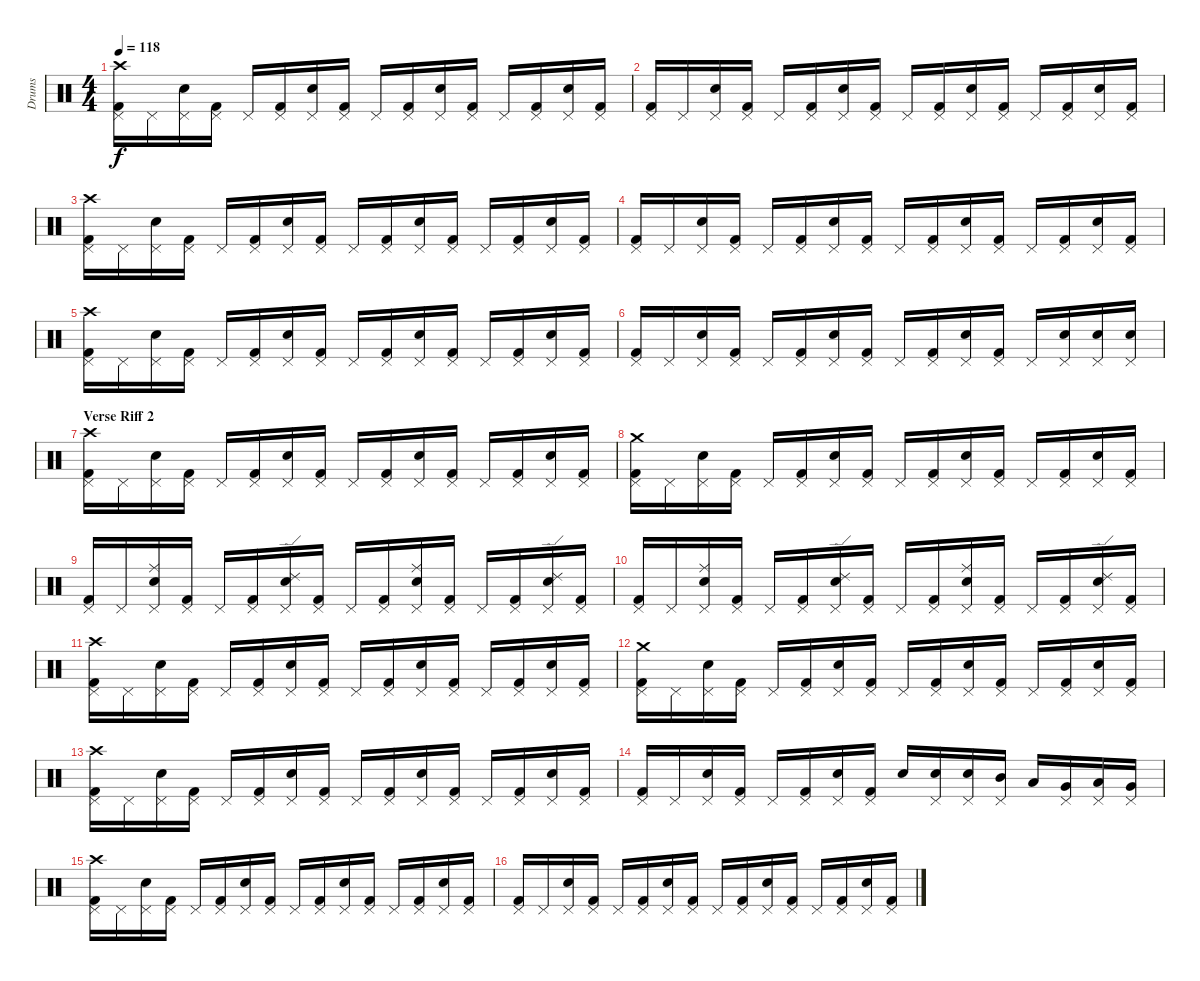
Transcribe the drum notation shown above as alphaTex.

\track ("Drums" "Drums") {instrument percussion}
\staff {score}
\articulation defaults
\ts (4 4)
\tempo 118
\clef neutral
\ks c
("Kick (hit) 2" "Pedal Hi-Hat (hit)" "Crash high (hit)").16{dy f} "Pedal Hi-Hat (hit)".16 ("Snare (hit) 2" "Pedal Hi-Hat (hit)").16 ("Kick (hit) 2" "Pedal Hi-Hat (hit)").16 "Pedal Hi-Hat (hit)".16 ("Kick (hit) 2" "Pedal Hi-Hat (hit)").16 ("Snare (hit) 2" "Pedal Hi-Hat (hit)").16 ("Kick (hit) 2" "Pedal Hi-Hat (hit)").16 "Pedal Hi-Hat (hit)".16 ("Kick (hit) 2" "Pedal Hi-Hat (hit)").16 ("Snare (hit) 2" "Pedal Hi-Hat (hit)").16 ("Kick (hit) 2" "Pedal Hi-Hat (hit)").16 "Pedal Hi-Hat (hit)".16 ("Kick (hit) 2" "Pedal Hi-Hat (hit)").16 ("Snare (hit) 2" "Pedal Hi-Hat (hit)").16 ("Kick (hit) 2" "Pedal Hi-Hat (hit)").16 |
("Kick (hit) 2" "Pedal Hi-Hat (hit)").16 "Pedal Hi-Hat (hit)".16 ("Snare (hit) 2" "Pedal Hi-Hat (hit)").16 ("Kick (hit) 2" "Pedal Hi-Hat (hit)").16 "Pedal Hi-Hat (hit)".16 ("Kick (hit) 2" "Pedal Hi-Hat (hit)").16 ("Snare (hit) 2" "Pedal Hi-Hat (hit)").16 ("Kick (hit) 2" "Pedal Hi-Hat (hit)").16 "Pedal Hi-Hat (hit)".16 ("Kick (hit) 2" "Pedal Hi-Hat (hit)").16 ("Snare (hit) 2" "Pedal Hi-Hat (hit)").16 ("Kick (hit) 2" "Pedal Hi-Hat (hit)").16 "Pedal Hi-Hat (hit)".16 ("Kick (hit) 2" "Pedal Hi-Hat (hit)").16 ("Snare (hit) 2" "Pedal Hi-Hat (hit)").16 ("Kick (hit) 2" "Pedal Hi-Hat (hit)").16 |
("Kick (hit) 2" "Pedal Hi-Hat (hit)" "Crash high (hit)").16 "Pedal Hi-Hat (hit)".16 ("Snare (hit) 2" "Pedal Hi-Hat (hit)").16 ("Kick (hit) 2" "Pedal Hi-Hat (hit)").16 "Pedal Hi-Hat (hit)".16 ("Kick (hit) 2" "Pedal Hi-Hat (hit)").16 ("Snare (hit) 2" "Pedal Hi-Hat (hit)").16 ("Kick (hit) 2" "Pedal Hi-Hat (hit)").16 "Pedal Hi-Hat (hit)".16 ("Kick (hit) 2" "Pedal Hi-Hat (hit)").16 ("Snare (hit) 2" "Pedal Hi-Hat (hit)").16 ("Kick (hit) 2" "Pedal Hi-Hat (hit)").16 "Pedal Hi-Hat (hit)".16 ("Kick (hit) 2" "Pedal Hi-Hat (hit)").16 ("Snare (hit) 2" "Pedal Hi-Hat (hit)").16 ("Kick (hit) 2" "Pedal Hi-Hat (hit)").16 |
("Kick (hit) 2" "Pedal Hi-Hat (hit)").16 "Pedal Hi-Hat (hit)".16 ("Snare (hit) 2" "Pedal Hi-Hat (hit)").16 ("Kick (hit) 2" "Pedal Hi-Hat (hit)").16 "Pedal Hi-Hat (hit)".16 ("Kick (hit) 2" "Pedal Hi-Hat (hit)").16 ("Snare (hit) 2" "Pedal Hi-Hat (hit)").16 ("Kick (hit) 2" "Pedal Hi-Hat (hit)").16 "Pedal Hi-Hat (hit)".16 ("Kick (hit) 2" "Pedal Hi-Hat (hit)").16 ("Snare (hit) 2" "Pedal Hi-Hat (hit)").16 ("Kick (hit) 2" "Pedal Hi-Hat (hit)").16 "Pedal Hi-Hat (hit)".16 ("Kick (hit) 2" "Pedal Hi-Hat (hit)").16 ("Snare (hit) 2" "Pedal Hi-Hat (hit)").16 ("Kick (hit) 2" "Pedal Hi-Hat (hit)").16 |
("Kick (hit) 2" "Pedal Hi-Hat (hit)" "Crash high (hit)").16 "Pedal Hi-Hat (hit)".16 ("Snare (hit) 2" "Pedal Hi-Hat (hit)").16 ("Kick (hit) 2" "Pedal Hi-Hat (hit)").16 "Pedal Hi-Hat (hit)".16 ("Kick (hit) 2" "Pedal Hi-Hat (hit)").16 ("Snare (hit) 2" "Pedal Hi-Hat (hit)").16 ("Kick (hit) 2" "Pedal Hi-Hat (hit)").16 "Pedal Hi-Hat (hit)".16 ("Kick (hit) 2" "Pedal Hi-Hat (hit)").16 ("Snare (hit) 2" "Pedal Hi-Hat (hit)").16 ("Kick (hit) 2" "Pedal Hi-Hat (hit)").16 "Pedal Hi-Hat (hit)".16 ("Kick (hit) 2" "Pedal Hi-Hat (hit)").16 ("Snare (hit) 2" "Pedal Hi-Hat (hit)").16 ("Kick (hit) 2" "Pedal Hi-Hat (hit)").16 |
("Kick (hit) 2" "Pedal Hi-Hat (hit)").16 "Pedal Hi-Hat (hit)".16 ("Snare (hit) 2" "Pedal Hi-Hat (hit)").16 ("Kick (hit) 2" "Pedal Hi-Hat (hit)").16 "Pedal Hi-Hat (hit)".16 ("Kick (hit) 2" "Pedal Hi-Hat (hit)").16 ("Snare (hit) 2" "Pedal Hi-Hat (hit)").16 ("Kick (hit) 2" "Pedal Hi-Hat (hit)").16 "Pedal Hi-Hat (hit)".16 ("Kick (hit) 2" "Pedal Hi-Hat (hit)").16 ("Snare (hit) 2" "Pedal Hi-Hat (hit)").16 ("Kick (hit) 2" "Pedal Hi-Hat (hit)").16 "Pedal Hi-Hat (hit)".16 ("Snare (hit) 2" "Pedal Hi-Hat (hit)").16 ("Snare (hit) 2" "Pedal Hi-Hat (hit)").16 ("Snare (hit) 2" "Pedal Hi-Hat (hit)").16 |
\section ("" "Verse Riff 2")
("Kick (hit) 2" "Pedal Hi-Hat (hit)" "Crash high (hit)").16 "Pedal Hi-Hat (hit)".16 ("Snare (hit) 2" "Pedal Hi-Hat (hit)").16 ("Kick (hit) 2" "Pedal Hi-Hat (hit)").16 "Pedal Hi-Hat (hit)".16 ("Kick (hit) 2" "Pedal Hi-Hat (hit)").16 ("Snare (hit) 2" "Pedal Hi-Hat (hit)").16 ("Kick (hit) 2" "Pedal Hi-Hat (hit)").16 "Pedal Hi-Hat (hit)".16 ("Kick (hit) 2" "Pedal Hi-Hat (hit)").16 ("Snare (hit) 2" "Pedal Hi-Hat (hit)").16 ("Kick (hit) 2" "Pedal Hi-Hat (hit)").16 "Pedal Hi-Hat (hit)".16 ("Kick (hit) 2" "Pedal Hi-Hat (hit)").16 ("Snare (hit) 2" "Pedal Hi-Hat (hit)").16 ("Kick (hit) 2" "Pedal Hi-Hat (hit)").16 |
("Kick (hit) 2" "Pedal Hi-Hat (hit)" "Crash medium (hit)").16 "Pedal Hi-Hat (hit)".16 ("Snare (hit) 2" "Pedal Hi-Hat (hit)").16 ("Kick (hit) 2" "Pedal Hi-Hat (hit)").16 "Pedal Hi-Hat (hit)".16 ("Kick (hit) 2" "Pedal Hi-Hat (hit)").16 ("Snare (hit) 2" "Pedal Hi-Hat (hit)").16 ("Kick (hit) 2" "Pedal Hi-Hat (hit)").16 "Pedal Hi-Hat (hit)".16 ("Kick (hit) 2" "Pedal Hi-Hat (hit)").16 ("Snare (hit) 2" "Pedal Hi-Hat (hit)").16 ("Kick (hit) 2" "Pedal Hi-Hat (hit)").16 "Pedal Hi-Hat (hit)".16 ("Kick (hit) 2" "Pedal Hi-Hat (hit)").16 ("Snare (hit) 2" "Pedal Hi-Hat (hit)").16 ("Kick (hit) 2" "Pedal Hi-Hat (hit)").16 |
("Kick (hit) 2" "Pedal Hi-Hat (hit)").16 "Pedal Hi-Hat (hit)".16 ("Snare (hit) 2" "Pedal Hi-Hat (hit)" "Ride (middle)").16 ("Kick (hit) 2" "Pedal Hi-Hat (hit)").16 "Pedal Hi-Hat (hit)".16 ("Kick (hit) 2" "Pedal Hi-Hat (hit)").16 ("Snare (hit) 2" "Pedal Hi-Hat (hit)" "Ride (edge) 2").16 ("Kick (hit) 2" "Pedal Hi-Hat (hit)").16 "Pedal Hi-Hat (hit)".16 ("Kick (hit) 2" "Pedal Hi-Hat (hit)").16 ("Snare (hit) 2" "Pedal Hi-Hat (hit)" "Ride (middle)").16 ("Kick (hit) 2" "Pedal Hi-Hat (hit)").16 "Pedal Hi-Hat (hit)".16 ("Kick (hit) 2" "Pedal Hi-Hat (hit)").16 ("Snare (hit) 2" "Pedal Hi-Hat (hit)" "Ride (edge) 2").16 ("Kick (hit) 2" "Pedal Hi-Hat (hit)").16 |
("Kick (hit) 2" "Pedal Hi-Hat (hit)").16 "Pedal Hi-Hat (hit)".16 ("Snare (hit) 2" "Pedal Hi-Hat (hit)" "Ride (middle)").16 ("Kick (hit) 2" "Pedal Hi-Hat (hit)").16 "Pedal Hi-Hat (hit)".16 ("Kick (hit) 2" "Pedal Hi-Hat (hit)").16 ("Snare (hit) 2" "Pedal Hi-Hat (hit)" "Ride (edge) 2").16 ("Kick (hit) 2" "Pedal Hi-Hat (hit)").16 "Pedal Hi-Hat (hit)".16 ("Kick (hit) 2" "Pedal Hi-Hat (hit)").16 ("Snare (hit) 2" "Pedal Hi-Hat (hit)" "Ride (middle)").16 ("Kick (hit) 2" "Pedal Hi-Hat (hit)").16 "Pedal Hi-Hat (hit)".16 ("Kick (hit) 2" "Pedal Hi-Hat (hit)").16 ("Snare (hit) 2" "Pedal Hi-Hat (hit)" "Ride (edge) 2").16 ("Kick (hit) 2" "Pedal Hi-Hat (hit)").16 |
("Kick (hit) 2" "Pedal Hi-Hat (hit)" "Crash high (hit)").16 "Pedal Hi-Hat (hit)".16 ("Snare (hit) 2" "Pedal Hi-Hat (hit)").16 ("Kick (hit) 2" "Pedal Hi-Hat (hit)").16 "Pedal Hi-Hat (hit)".16 ("Kick (hit) 2" "Pedal Hi-Hat (hit)").16 ("Snare (hit) 2" "Pedal Hi-Hat (hit)").16 ("Kick (hit) 2" "Pedal Hi-Hat (hit)").16 "Pedal Hi-Hat (hit)".16 ("Kick (hit) 2" "Pedal Hi-Hat (hit)").16 ("Snare (hit) 2" "Pedal Hi-Hat (hit)").16 ("Kick (hit) 2" "Pedal Hi-Hat (hit)").16 "Pedal Hi-Hat (hit)".16 ("Kick (hit) 2" "Pedal Hi-Hat (hit)").16 ("Snare (hit) 2" "Pedal Hi-Hat (hit)").16 ("Kick (hit) 2" "Pedal Hi-Hat (hit)").16 |
("Kick (hit) 2" "Pedal Hi-Hat (hit)" "Crash medium (hit)").16 "Pedal Hi-Hat (hit)".16 ("Snare (hit) 2" "Pedal Hi-Hat (hit)").16 ("Kick (hit) 2" "Pedal Hi-Hat (hit)").16 "Pedal Hi-Hat (hit)".16 ("Kick (hit) 2" "Pedal Hi-Hat (hit)").16 ("Snare (hit) 2" "Pedal Hi-Hat (hit)").16 ("Kick (hit) 2" "Pedal Hi-Hat (hit)").16 "Pedal Hi-Hat (hit)".16 ("Kick (hit) 2" "Pedal Hi-Hat (hit)").16 ("Snare (hit) 2" "Pedal Hi-Hat (hit)").16 ("Kick (hit) 2" "Pedal Hi-Hat (hit)").16 "Pedal Hi-Hat (hit)".16 ("Kick (hit) 2" "Pedal Hi-Hat (hit)").16 ("Snare (hit) 2" "Pedal Hi-Hat (hit)").16 ("Kick (hit) 2" "Pedal Hi-Hat (hit)").16 |
("Kick (hit) 2" "Pedal Hi-Hat (hit)" "Crash high (hit)").16 "Pedal Hi-Hat (hit)".16 ("Snare (hit) 2" "Pedal Hi-Hat (hit)").16 ("Kick (hit) 2" "Pedal Hi-Hat (hit)").16 "Pedal Hi-Hat (hit)".16 ("Kick (hit) 2" "Pedal Hi-Hat (hit)").16 ("Snare (hit) 2" "Pedal Hi-Hat (hit)").16 ("Kick (hit) 2" "Pedal Hi-Hat (hit)").16 "Pedal Hi-Hat (hit)".16 ("Kick (hit) 2" "Pedal Hi-Hat (hit)").16 ("Snare (hit) 2" "Pedal Hi-Hat (hit)").16 ("Kick (hit) 2" "Pedal Hi-Hat (hit)").16 "Pedal Hi-Hat (hit)".16 ("Kick (hit) 2" "Pedal Hi-Hat (hit)").16 ("Snare (hit) 2" "Pedal Hi-Hat (hit)").16 ("Kick (hit) 2" "Pedal Hi-Hat (hit)").16 |
("Kick (hit) 2" "Pedal Hi-Hat (hit)").16 "Pedal Hi-Hat (hit)".16 ("Snare (hit) 2" "Pedal Hi-Hat (hit)").16 ("Kick (hit) 2" "Pedal Hi-Hat (hit)").16 "Pedal Hi-Hat (hit)".16 ("Kick (hit) 2" "Pedal Hi-Hat (hit)").16 ("Snare (hit) 2" "Pedal Hi-Hat (hit)").16 ("Kick (hit) 2" "Pedal Hi-Hat (hit)").16 "Snare (hit) 2".16 ("Snare (hit) 2" "Pedal Hi-Hat (hit)").16 ("Snare (hit) 2" "Pedal Hi-Hat (hit)").16 ("Mid Tom (hit)" "Pedal Hi-Hat (hit)").16 "Low Tom (hit)".16 ("Very Low Tom (hit)" "Pedal Hi-Hat (hit)").16 ("Low Floor Tom (hit)" "Pedal Hi-Hat (hit)").16 ("Very Low Tom (hit)" "Pedal Hi-Hat (hit)").16 |
("Kick (hit) 2" "Pedal Hi-Hat (hit)" "Crash high (hit)").16 "Pedal Hi-Hat (hit)".16 ("Snare (hit) 2" "Pedal Hi-Hat (hit)").16 ("Kick (hit) 2" "Pedal Hi-Hat (hit)").16 "Pedal Hi-Hat (hit)".16 ("Kick (hit) 2" "Pedal Hi-Hat (hit)").16 ("Snare (hit) 2" "Pedal Hi-Hat (hit)").16 ("Kick (hit) 2" "Pedal Hi-Hat (hit)").16 "Pedal Hi-Hat (hit)".16 ("Kick (hit) 2" "Pedal Hi-Hat (hit)").16 ("Snare (hit) 2" "Pedal Hi-Hat (hit)").16 ("Kick (hit) 2" "Pedal Hi-Hat (hit)").16 "Pedal Hi-Hat (hit)".16 ("Kick (hit) 2" "Pedal Hi-Hat (hit)").16 ("Snare (hit) 2" "Pedal Hi-Hat (hit)").16 ("Kick (hit) 2" "Pedal Hi-Hat (hit)").16 |
("Kick (hit) 2" "Pedal Hi-Hat (hit)").16 "Pedal Hi-Hat (hit)".16 ("Snare (hit) 2" "Pedal Hi-Hat (hit)").16 ("Kick (hit) 2" "Pedal Hi-Hat (hit)").16 "Pedal Hi-Hat (hit)".16 ("Kick (hit) 2" "Pedal Hi-Hat (hit)").16 ("Snare (hit) 2" "Pedal Hi-Hat (hit)").16 ("Kick (hit) 2" "Pedal Hi-Hat (hit)").16 "Pedal Hi-Hat (hit)".16 ("Kick (hit) 2" "Pedal Hi-Hat (hit)").16 ("Snare (hit) 2" "Pedal Hi-Hat (hit)").16 ("Kick (hit) 2" "Pedal Hi-Hat (hit)").16 "Pedal Hi-Hat (hit)".16 ("Kick (hit) 2" "Pedal Hi-Hat (hit)").16 ("Snare (hit) 2" "Pedal Hi-Hat (hit)").16 ("Kick (hit) 2" "Pedal Hi-Hat (hit)").16
